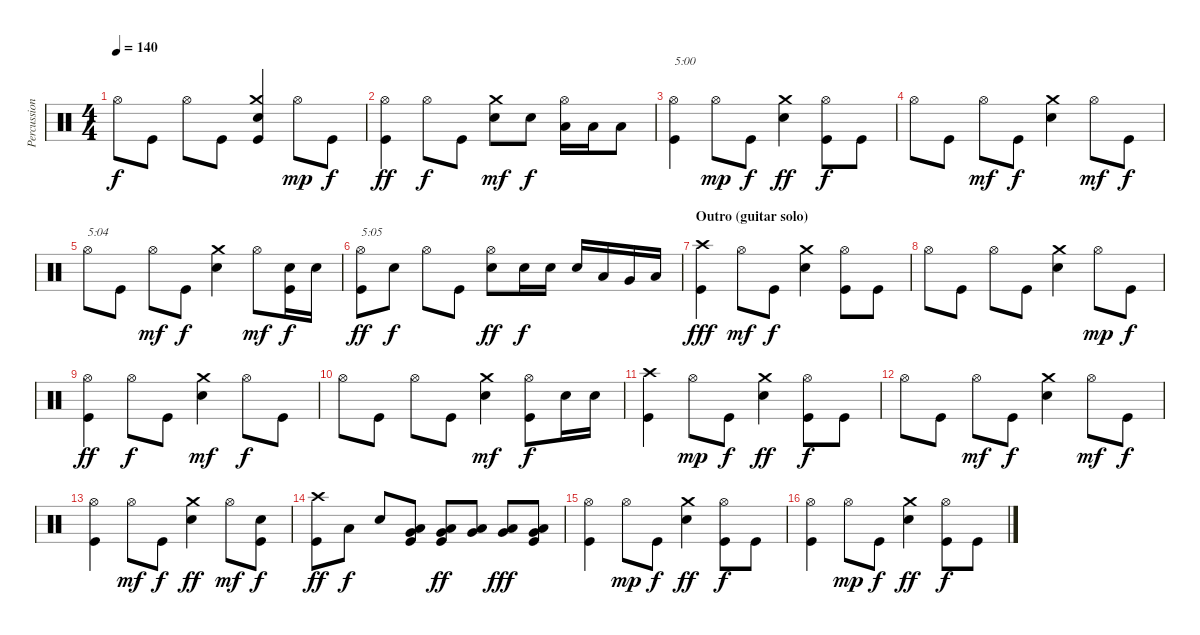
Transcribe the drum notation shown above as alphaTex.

\track ("Percussion" "Percussion") {instrument percussion}
\staff {score}
\articulation defaults
\ts (4 4)
\tempo 140
\clef neutral
\ks c "Hi-Hat (open)".8{dy f} "Kick (hit)".8 "Hi-Hat (open)".8 "Kick (hit)".8
("Crash medium (hit)" "Electric Snare (hit)" "Kick (hit)").4 "Hi-Hat (open)".8{dy mp} "Kick (hit)".8{dy f} |
("Hi-Hat (open)" "Kick (hit)").4{dy ff} "Hi-Hat (open)".8{dy f} "Kick (hit)".8 ("Crash medium (hit)" "Electric Snare (hit)").8{dy mf} "Electric Snare (hit)".8{dy f} ("Hi-Hat (open)" "Low Tom (hit)").16 "Low Tom (hit)".16 "Low Floor Tom (hit)".8 |
("Hi-Hat (open)" "Kick (hit)").4{txt "5:00"} "Hi-Hat (open)".8{dy mp} "Kick (hit)".8{dy f} ("Crash medium (hit)" "Electric Snare (hit)").4{dy ff} ("Hi-Hat (open)" "Kick (hit)").8{dy f} "Kick (hit)".8 |
"Hi-Hat (open)".8 "Kick (hit)".8 "Hi-Hat (open)".8{dy mf} "Kick (hit)".8{dy f} ("Crash medium (hit)" "Electric Snare (hit)").4 "Hi-Hat (open)".8{dy mf} "Kick (hit)".8{dy f} |
"Hi-Hat (open)".8{txt "5:04"} "Kick (hit)".8 "Hi-Hat (open)".8{dy mf} "Kick (hit)".8{dy f} ("Crash medium (hit)" "Electric Snare (hit)").4 "Hi-Hat (open)".8{dy mf} ("Electric Snare (hit)" "Kick (hit)").16{dy f} "Electric Snare (hit)".16 |
("Hi-Hat (open)" "Kick (hit)").8{txt "5:05" dy ff} "Electric Snare (hit)".8{dy f} "Hi-Hat (open)".8 "Kick (hit)".8 ("Hi-Hat (open)" "Electric Snare (hit)").8{dy ff} "Electric Snare (hit)".16{dy f} "Electric Snare (hit)".16 "Electric Snare (hit)".16 "Low Tom (hit)".16 "Very Low Tom (hit)".16 "Low Floor Tom (hit)".16 |
\section ("" "Outro (guitar solo)")
("Crash high (hit)" "Kick (hit)").4{dy fff} "Hi-Hat (open)".8{dy mf} "Kick (hit)".8{dy f} ("Crash medium (hit)" "Electric Snare (hit)").4 ("Hi-Hat (open)" "Kick (hit)").8 "Kick (hit)".8 |
"Hi-Hat (open)".8 "Kick (hit)".8 "Hi-Hat (open)".8 "Kick (hit)".8 ("Crash medium (hit)" "Electric Snare (hit)").4 "Hi-Hat (open)".8{dy mp} "Kick (hit)".8{dy f} |
("Hi-Hat (open)" "Kick (hit)").4{dy ff} "Hi-Hat (open)".8{dy f} "Kick (hit)".8 ("Crash medium (hit)" "Electric Snare (hit)").4{dy mf} "Hi-Hat (open)".8{dy f} "Kick (hit)".8 |
"Hi-Hat (open)".8 "Kick (hit)".8 "Hi-Hat (open)".8 "Kick (hit)".8 ("Crash medium (hit)" "Electric Snare (hit)").4{dy mf} ("Hi-Hat (open)" "Kick (hit)").8{dy f} "Electric Snare (hit)".16 "Electric Snare (hit)".16 |
("Crash high (hit)" "Kick (hit)").4 "Hi-Hat (open)".8{dy mp} "Kick (hit)".8{dy f} ("Crash medium (hit)" "Electric Snare (hit)").4{dy ff} ("Hi-Hat (open)" "Kick (hit)").8{dy f} "Kick (hit)".8 |
"Hi-Hat (open)".8 "Kick (hit)".8 "Hi-Hat (open)".8{dy mf} "Kick (hit)".8{dy f} ("Crash medium (hit)" "Electric Snare (hit)").4 "Hi-Hat (open)".8{dy mf} "Kick (hit)".8{dy f} |
("Hi-Hat (open)" "Kick (hit)").4 "Hi-Hat (open)".8{dy mf} "Kick (hit)".8{dy f} ("Crash medium (hit)" "Electric Snare (hit)").4{dy ff} "Hi-Hat (open)".8{dy mf} ("Electric Snare (hit)" "Kick (hit)").8{dy f} |
("Crash high (hit)" "Kick (hit)").8{dy ff} "Low Tom (hit)".8{dy f} "Electric Snare (hit)".8 ("Low Tom (hit)" "Very Low Tom (hit)" "Kick (hit)").8 ("Low Tom (hit)" "Very Low Tom (hit)" "Kick (hit)").8{dy ff} ("Low Tom (hit)" "Very Low Tom (hit)").8 ("Low Tom (hit)" "Very Low Tom (hit)").8{dy fff} ("Low Tom (hit)" "Very Low Tom (hit)" "Kick (hit)").8 |
("Hi-Hat (open)" "Kick (hit)").4 "Hi-Hat (open)".8{dy mp} "Kick (hit)".8{dy f} ("Crash medium (hit)" "Electric Snare (hit)").4{dy ff} ("Hi-Hat (open)" "Kick (hit)").8{dy f} "Kick (hit)".8 |
("Hi-Hat (open)" "Kick (hit)").4 "Hi-Hat (open)".8{dy mp} "Kick (hit)".8{dy f} ("Crash medium (hit)" "Electric Snare (hit)").4{dy ff} ("Hi-Hat (open)" "Kick (hit)").8{dy f} "Kick (hit)".8
